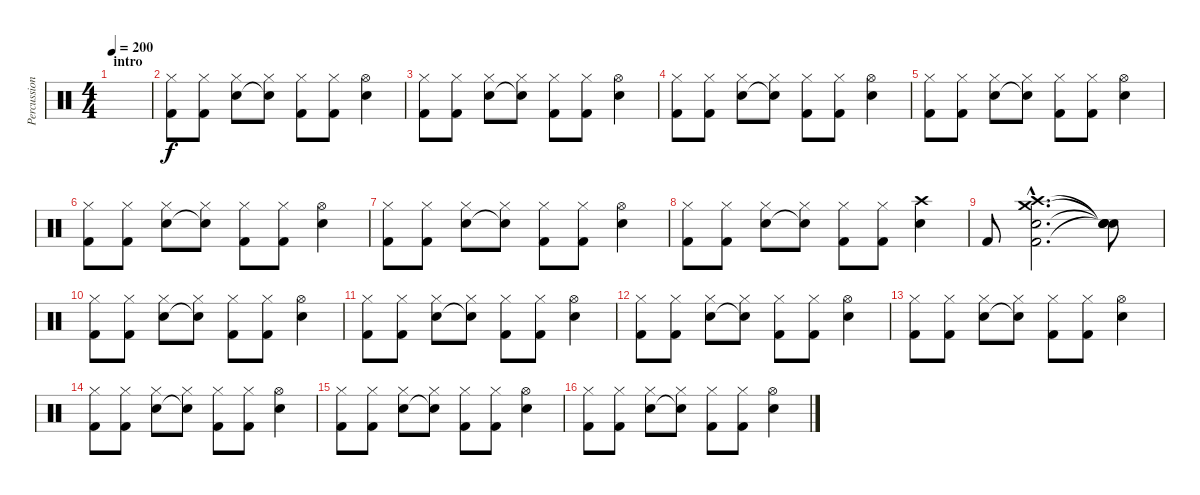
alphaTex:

\track ("Percussion" "Percussion") {instrument percussion}
\staff {score}
\articulation defaults
\ts (4 4)
\section ("" "intro")
\tempo 200
\clef neutral
\ks c
|
("Hi-Hat (closed)" "Kick (hit) 2").8 ("Hi-Hat (closed)" "Kick (hit) 2").8 ("Hi-Hat (closed)" "Electric Snare (hit)").8 ("Hi-Hat (closed)" "Snare (hit)"{t}).8 ("Hi-Hat (closed)" "Kick (hit) 2").8 ("Hi-Hat (closed)" "Kick (hit) 2").8 ("Hi-Hat (open)" "Electric Snare (hit)").4 |
("Hi-Hat (closed)" "Kick (hit) 2").8 ("Hi-Hat (closed)" "Kick (hit) 2").8 ("Hi-Hat (closed)" "Electric Snare (hit)").8 ("Hi-Hat (closed)" "Snare (hit)"{t}).8 ("Hi-Hat (closed)" "Kick (hit) 2").8 ("Hi-Hat (closed)" "Kick (hit) 2").8 ("Hi-Hat (open)" "Electric Snare (hit)").4 |
("Hi-Hat (closed)" "Kick (hit) 2").8 ("Hi-Hat (closed)" "Kick (hit) 2").8 ("Hi-Hat (closed)" "Electric Snare (hit)").8 ("Hi-Hat (closed)" "Snare (hit)"{t}).8 ("Hi-Hat (closed)" "Kick (hit) 2").8 ("Hi-Hat (closed)" "Kick (hit) 2").8 ("Hi-Hat (open)" "Electric Snare (hit)").4 |
("Hi-Hat (closed)" "Kick (hit) 2").8 ("Hi-Hat (closed)" "Kick (hit) 2").8 ("Hi-Hat (closed)" "Electric Snare (hit)").8 ("Hi-Hat (closed)" "Snare (hit)"{t}).8 ("Hi-Hat (closed)" "Kick (hit) 2").8 ("Hi-Hat (closed)" "Kick (hit) 2").8 ("Hi-Hat (open)" "Electric Snare (hit)").4 |
("Hi-Hat (closed)" "Kick (hit) 2").8 ("Hi-Hat (closed)" "Kick (hit) 2").8 ("Hi-Hat (closed)" "Electric Snare (hit)").8 ("Hi-Hat (closed)" "Snare (hit)"{t}).8 ("Hi-Hat (closed)" "Kick (hit) 2").8 ("Hi-Hat (closed)" "Kick (hit) 2").8 ("Hi-Hat (open)" "Electric Snare (hit)").4 |
("Hi-Hat (closed)" "Kick (hit) 2").8 ("Hi-Hat (closed)" "Kick (hit) 2").8 ("Hi-Hat (closed)" "Electric Snare (hit)").8 ("Hi-Hat (closed)" "Snare (hit)"{t}).8 ("Hi-Hat (closed)" "Kick (hit) 2").8 ("Hi-Hat (closed)" "Kick (hit) 2").8 ("Hi-Hat (open)" "Electric Snare (hit)").4 |
("Hi-Hat (closed)" "Kick (hit) 2").8 ("Hi-Hat (closed)" "Kick (hit) 2").8 ("Hi-Hat (closed)" "Electric Snare (hit)").8 ("Hi-Hat (closed)" "Snare (hit)"{t}).8 ("Hi-Hat (closed)" "Kick (hit) 2").8 ("Hi-Hat (closed)" "Kick (hit) 2").8 ("Crash high (hit)" "Electric Snare (hit)").4 |
"Kick (hit) 2".8 ("Crash medium (hit)"{hac} "Electric Snare (hit)"{hac} "Crash high (hit)"{hac} "Kick (hit) 2"{hac}).2{d} ("Snare (hit)"{t} "Snare (hit)"{t} "Snare (hit)"{t} "Snare (hit)"{t}).8 |
("Hi-Hat (closed)" "Kick (hit) 2").8 ("Hi-Hat (closed)" "Kick (hit) 2").8 ("Hi-Hat (closed)" "Electric Snare (hit)").8 ("Hi-Hat (closed)" "Snare (hit)"{t}).8 ("Hi-Hat (closed)" "Kick (hit) 2").8 ("Hi-Hat (closed)" "Kick (hit) 2").8 ("Hi-Hat (open)" "Electric Snare (hit)").4 |
("Hi-Hat (closed)" "Kick (hit) 2").8 ("Hi-Hat (closed)" "Kick (hit) 2").8 ("Hi-Hat (closed)" "Electric Snare (hit)").8 ("Hi-Hat (closed)" "Snare (hit)"{t}).8 ("Hi-Hat (closed)" "Kick (hit) 2").8 ("Hi-Hat (closed)" "Kick (hit) 2").8 ("Hi-Hat (open)" "Electric Snare (hit)").4 |
("Hi-Hat (closed)" "Kick (hit) 2").8 ("Hi-Hat (closed)" "Kick (hit) 2").8 ("Hi-Hat (closed)" "Electric Snare (hit)").8 ("Hi-Hat (closed)" "Snare (hit)"{t}).8 ("Hi-Hat (closed)" "Kick (hit) 2").8 ("Hi-Hat (closed)" "Kick (hit) 2").8 ("Hi-Hat (open)" "Electric Snare (hit)").4 |
("Hi-Hat (closed)" "Kick (hit) 2").8 ("Hi-Hat (closed)" "Kick (hit) 2").8 ("Hi-Hat (closed)" "Electric Snare (hit)").8 ("Hi-Hat (closed)" "Snare (hit)"{t}).8 ("Hi-Hat (closed)" "Kick (hit) 2").8 ("Hi-Hat (closed)" "Kick (hit) 2").8 ("Hi-Hat (open)" "Electric Snare (hit)").4 |
("Hi-Hat (closed)" "Kick (hit) 2").8 ("Hi-Hat (closed)" "Kick (hit) 2").8 ("Hi-Hat (closed)" "Electric Snare (hit)").8 ("Hi-Hat (closed)" "Snare (hit)"{t}).8 ("Hi-Hat (closed)" "Kick (hit) 2").8 ("Hi-Hat (closed)" "Kick (hit) 2").8 ("Hi-Hat (open)" "Electric Snare (hit)").4 |
("Hi-Hat (closed)" "Kick (hit) 2").8 ("Hi-Hat (closed)" "Kick (hit) 2").8 ("Hi-Hat (closed)" "Electric Snare (hit)").8 ("Hi-Hat (closed)" "Snare (hit)"{t}).8 ("Hi-Hat (closed)" "Kick (hit) 2").8 ("Hi-Hat (closed)" "Kick (hit) 2").8 ("Hi-Hat (open)" "Electric Snare (hit)").4 |
("Hi-Hat (closed)" "Kick (hit) 2").8 ("Hi-Hat (closed)" "Kick (hit) 2").8 ("Hi-Hat (closed)" "Electric Snare (hit)").8 ("Hi-Hat (closed)" "Snare (hit)"{t}).8 ("Hi-Hat (closed)" "Kick (hit) 2").8 ("Hi-Hat (closed)" "Kick (hit) 2").8 ("Hi-Hat (open)" "Electric Snare (hit)").4
